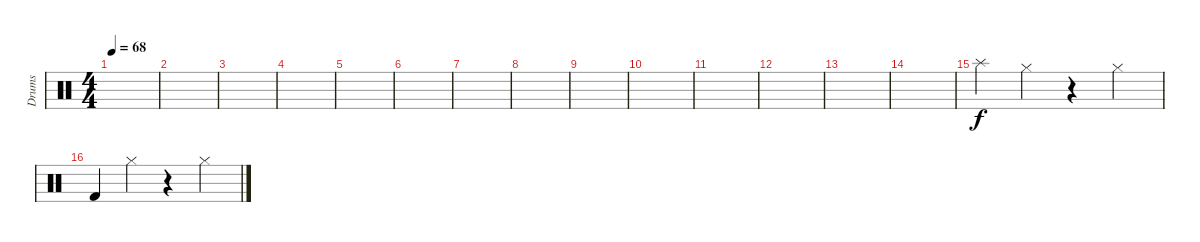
\track ("Drums" "Drums") {instrument percussion}
\staff {score}
\articulation defaults
\ts (4 4)
\tempo 68
\clef neutral
\ks c
|
|
|
|
|
|
|
|
|
|
|
|
|
|
"Splash (hit)".4 "Hi-Hat (closed)".4{dy f} r.4 "Hi-Hat (closed)".4 |
"Kick (hit) 2".4 "Hi-Hat (closed)".4 r.4 "Hi-Hat (closed)".4
